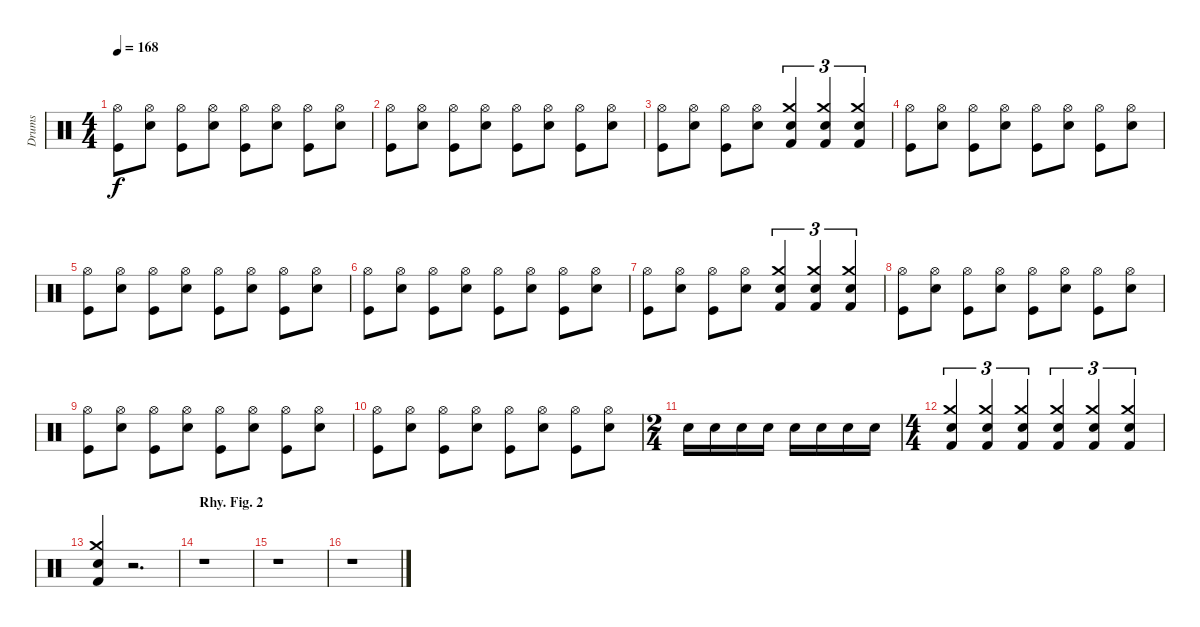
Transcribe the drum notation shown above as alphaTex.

\track ("Drums" "Drums") {instrument percussion}
\staff {score}
\articulation defaults
\ts (4 4)
\tempo 168
\clef neutral
\ks c
("Hi-Hat (open)" "Kick (hit)").8{dy f} ("Hi-Hat (open)" "Snare (hit) 2").8 ("Hi-Hat (open)" "Kick (hit)").8 ("Hi-Hat (open)" "Snare (hit) 2").8 ("Hi-Hat (open)" "Kick (hit)").8 ("Hi-Hat (open)" "Snare (hit) 2").8 ("Hi-Hat (open)" "Kick (hit)").8 ("Hi-Hat (open)" "Snare (hit) 2").8 |
("Hi-Hat (open)" "Kick (hit)").8 ("Hi-Hat (open)" "Snare (hit) 2").8 ("Hi-Hat (open)" "Kick (hit)").8 ("Hi-Hat (open)" "Snare (hit) 2").8 ("Hi-Hat (open)" "Kick (hit)").8 ("Hi-Hat (open)" "Snare (hit) 2").8 ("Hi-Hat (open)" "Kick (hit)").8 ("Hi-Hat (open)" "Snare (hit) 2").8 |
("Hi-Hat (open)" "Kick (hit)").8 ("Hi-Hat (open)" "Snare (hit) 2").8 ("Hi-Hat (open)" "Kick (hit)").8 ("Hi-Hat (open)" "Snare (hit) 2").8 ("Crash medium (hit)" "Snare (hit) 2" "Kick (hit) 2").4{tu (3 2)} ("Crash medium (hit)" "Snare (hit) 2" "Kick (hit) 2").4{tu (3 2)} ("Crash medium (hit)" "Snare (hit) 2" "Kick (hit) 2").4{tu (3 2)} |
("Hi-Hat (open)" "Kick (hit)").8 ("Hi-Hat (open)" "Snare (hit) 2").8 ("Hi-Hat (open)" "Kick (hit)").8 ("Hi-Hat (open)" "Snare (hit) 2").8 ("Hi-Hat (open)" "Kick (hit)").8 ("Hi-Hat (open)" "Snare (hit) 2").8 ("Hi-Hat (open)" "Kick (hit)").8 ("Hi-Hat (open)" "Snare (hit) 2").8 |
("Hi-Hat (open)" "Kick (hit)").8 ("Hi-Hat (open)" "Snare (hit) 2").8 ("Hi-Hat (open)" "Kick (hit)").8 ("Hi-Hat (open)" "Snare (hit) 2").8 ("Hi-Hat (open)" "Kick (hit)").8 ("Hi-Hat (open)" "Snare (hit) 2").8 ("Hi-Hat (open)" "Kick (hit)").8 ("Hi-Hat (open)" "Snare (hit) 2").8 |
("Hi-Hat (open)" "Kick (hit)").8 ("Hi-Hat (open)" "Snare (hit) 2").8 ("Hi-Hat (open)" "Kick (hit)").8 ("Hi-Hat (open)" "Snare (hit) 2").8 ("Hi-Hat (open)" "Kick (hit)").8 ("Hi-Hat (open)" "Snare (hit) 2").8 ("Hi-Hat (open)" "Kick (hit)").8 ("Hi-Hat (open)" "Snare (hit) 2").8 |
("Hi-Hat (open)" "Kick (hit)").8 ("Hi-Hat (open)" "Snare (hit) 2").8 ("Hi-Hat (open)" "Kick (hit)").8 ("Hi-Hat (open)" "Snare (hit) 2").8 ("Crash medium (hit)" "Snare (hit) 2" "Kick (hit) 2").4{tu (3 2)} ("Crash medium (hit)" "Snare (hit) 2" "Kick (hit) 2").4{tu (3 2)} ("Crash medium (hit)" "Snare (hit) 2" "Kick (hit) 2").4{tu (3 2)} |
("Hi-Hat (open)" "Kick (hit)").8 ("Hi-Hat (open)" "Snare (hit) 2").8 ("Hi-Hat (open)" "Kick (hit)").8 ("Hi-Hat (open)" "Snare (hit) 2").8 ("Hi-Hat (open)" "Kick (hit)").8 ("Hi-Hat (open)" "Snare (hit) 2").8 ("Hi-Hat (open)" "Kick (hit)").8 ("Hi-Hat (open)" "Snare (hit) 2").8 |
("Hi-Hat (open)" "Kick (hit)").8 ("Hi-Hat (open)" "Snare (hit) 2").8 ("Hi-Hat (open)" "Kick (hit)").8 ("Hi-Hat (open)" "Snare (hit) 2").8 ("Hi-Hat (open)" "Kick (hit)").8 ("Hi-Hat (open)" "Snare (hit) 2").8 ("Hi-Hat (open)" "Kick (hit)").8 ("Hi-Hat (open)" "Snare (hit) 2").8 |
("Hi-Hat (open)" "Kick (hit)").8 ("Hi-Hat (open)" "Snare (hit) 2").8 ("Hi-Hat (open)" "Kick (hit)").8 ("Hi-Hat (open)" "Snare (hit) 2").8 ("Hi-Hat (open)" "Kick (hit)").8 ("Hi-Hat (open)" "Snare (hit) 2").8 ("Hi-Hat (open)" "Kick (hit)").8 ("Hi-Hat (open)" "Snare (hit) 2").8 |
\ts (2 4)
"Snare (hit) 2".16 "Snare (hit) 2".16 "Snare (hit) 2".16 "Snare (hit) 2".16 "Snare (hit) 2".16 "Snare (hit) 2".16 "Snare (hit) 2".16 "Snare (hit) 2".16 |
\ts (4 4)
("Crash medium (hit)" "Snare (hit) 2" "Kick (hit) 2").4{tu (3 2)} ("Crash medium (hit)" "Snare (hit) 2" "Kick (hit) 2").4{tu (3 2)} ("Crash medium (hit)" "Snare (hit) 2" "Kick (hit) 2").4{tu (3 2)} ("Crash medium (hit)" "Snare (hit) 2" "Kick (hit) 2").4{tu (3 2)} ("Crash medium (hit)" "Snare (hit) 2" "Kick (hit) 2").4{tu (3 2)} ("Crash medium (hit)" "Snare (hit) 2" "Kick (hit) 2").4{tu (3 2)} |
("Crash medium (hit)" "Snare (hit) 2" "Kick (hit) 2").4 r.2{d} |
\section ("" "Rhy. Fig. 2")
r.1 |
r.1 |
r.1
